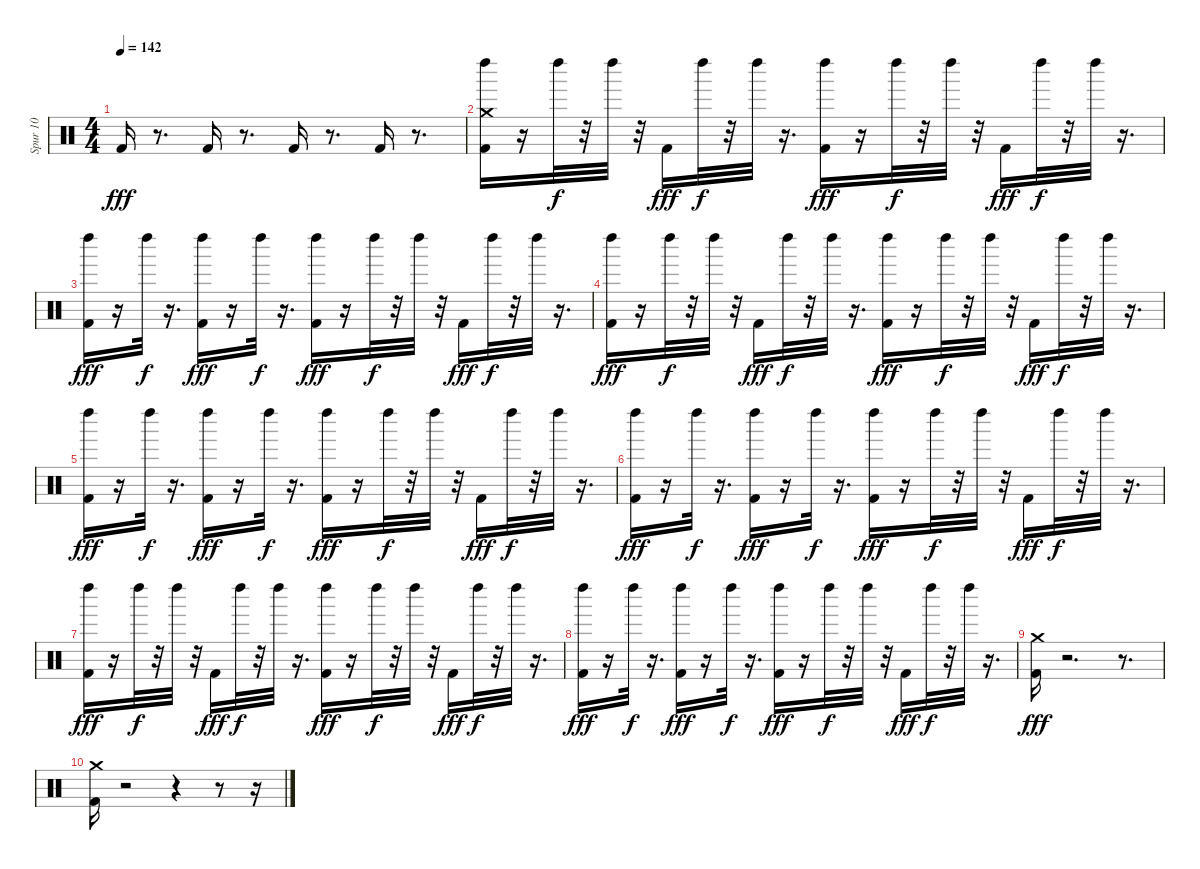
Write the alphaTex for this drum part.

\track ("Spur 10" "Spur 10") {instrument percussion}
\staff {score}
\articulation defaults
\ts (4 4)
\tempo 142
\clef neutral
\ks c "Kick (hit) 2".16{dy fff}
r.8{d} "Kick (hit) 2".16 r.8{d} "Kick (hit) 2".16 r.8{d} "Kick (hit) 2".16 r.8{d} |
("Kick (hit) 2" "Crash medium (hit)" "Left Maraca (hit)").16 r.16 "Left Maraca (hit)".32{dy f} r.32 "Left Maraca (hit)".32 r.32 "Kick (hit) 2".16{dy fff} "Left Maraca (hit)".32{dy f} r.32 "Left Maraca (hit)".32 r.16{d} ("Kick (hit) 2" "Left Maraca (hit)").16{dy fff} r.16 "Left Maraca (hit)".32{dy f} r.32 "Left Maraca (hit)".32 r.32 "Kick (hit) 2".16{dy fff} "Left Maraca (hit)".32{dy f} r.32 "Left Maraca (hit)".32 r.16{d} |
("Kick (hit) 2" "Left Maraca (hit)").16{dy fff} r.16 "Left Maraca (hit)".32{dy f} r.16{d} ("Kick (hit) 2" "Left Maraca (hit)").16{dy fff} r.16 "Left Maraca (hit)".32{dy f} r.16{d} ("Kick (hit) 2" "Left Maraca (hit)").16{dy fff} r.16 "Left Maraca (hit)".32{dy f} r.32 "Left Maraca (hit)".32 r.32 "Kick (hit) 2".16{dy fff} "Left Maraca (hit)".32{dy f} r.32 "Left Maraca (hit)".32 r.16{d} |
("Kick (hit) 2" "Left Maraca (hit)").16{dy fff} r.16 "Left Maraca (hit)".32{dy f} r.32 "Left Maraca (hit)".32 r.32 "Kick (hit) 2".16{dy fff} "Left Maraca (hit)".32{dy f} r.32 "Left Maraca (hit)".32 r.16{d} ("Kick (hit) 2" "Left Maraca (hit)").16{dy fff} r.16 "Left Maraca (hit)".32{dy f} r.32 "Left Maraca (hit)".32 r.32 "Kick (hit) 2".16{dy fff} "Left Maraca (hit)".32{dy f} r.32 "Left Maraca (hit)".32 r.16{d} |
("Kick (hit) 2" "Left Maraca (hit)").16{dy fff} r.16 "Left Maraca (hit)".32{dy f} r.16{d} ("Kick (hit) 2" "Left Maraca (hit)").16{dy fff} r.16 "Left Maraca (hit)".32{dy f} r.16{d} ("Kick (hit) 2" "Left Maraca (hit)").16{dy fff} r.16 "Left Maraca (hit)".32{dy f} r.32 "Left Maraca (hit)".32 r.32 "Kick (hit) 2".16{dy fff} "Left Maraca (hit)".32{dy f} r.32 "Left Maraca (hit)".32 r.16{d} |
("Kick (hit) 2" "Left Maraca (hit)").16{dy fff} r.16 "Left Maraca (hit)".32{dy f} r.16{d} ("Kick (hit) 2" "Left Maraca (hit)").16{dy fff} r.16 "Left Maraca (hit)".32{dy f} r.16{d} ("Kick (hit) 2" "Left Maraca (hit)").16{dy fff} r.16 "Left Maraca (hit)".32{dy f} r.32 "Left Maraca (hit)".32 r.32 "Kick (hit) 2".16{dy fff} "Left Maraca (hit)".32{dy f} r.32 "Left Maraca (hit)".32 r.16{d} |
("Kick (hit) 2" "Left Maraca (hit)").16{dy fff} r.16 "Left Maraca (hit)".32{dy f} r.32 "Left Maraca (hit)".32 r.32 "Kick (hit) 2".16{dy fff} "Left Maraca (hit)".32{dy f} r.32 "Left Maraca (hit)".32 r.16{d} ("Kick (hit) 2" "Left Maraca (hit)").16{dy fff} r.16 "Left Maraca (hit)".32{dy f} r.32 "Left Maraca (hit)".32 r.32 "Kick (hit) 2".16{dy fff} "Left Maraca (hit)".32{dy f} r.32 "Left Maraca (hit)".32 r.16{d} |
("Kick (hit) 2" "Left Maraca (hit)").16{dy fff} r.16 "Left Maraca (hit)".32{dy f} r.16{d} ("Kick (hit) 2" "Left Maraca (hit)").16{dy fff} r.16 "Left Maraca (hit)".32{dy f} r.16{d} ("Kick (hit) 2" "Left Maraca (hit)").16{dy fff} r.16 "Left Maraca (hit)".32{dy f} r.32 "Left Maraca (hit)".32 r.32 "Kick (hit) 2".16{dy fff} "Left Maraca (hit)".32{dy f} r.32 "Left Maraca (hit)".32 r.16{d} |
("Kick (hit) 2" "Crash medium (hit)").16{dy fff} r.2{d} r.8{d} |
("Kick (hit) 2" "Crash medium (hit)").16 r.2 r.4 r.8 r.16
